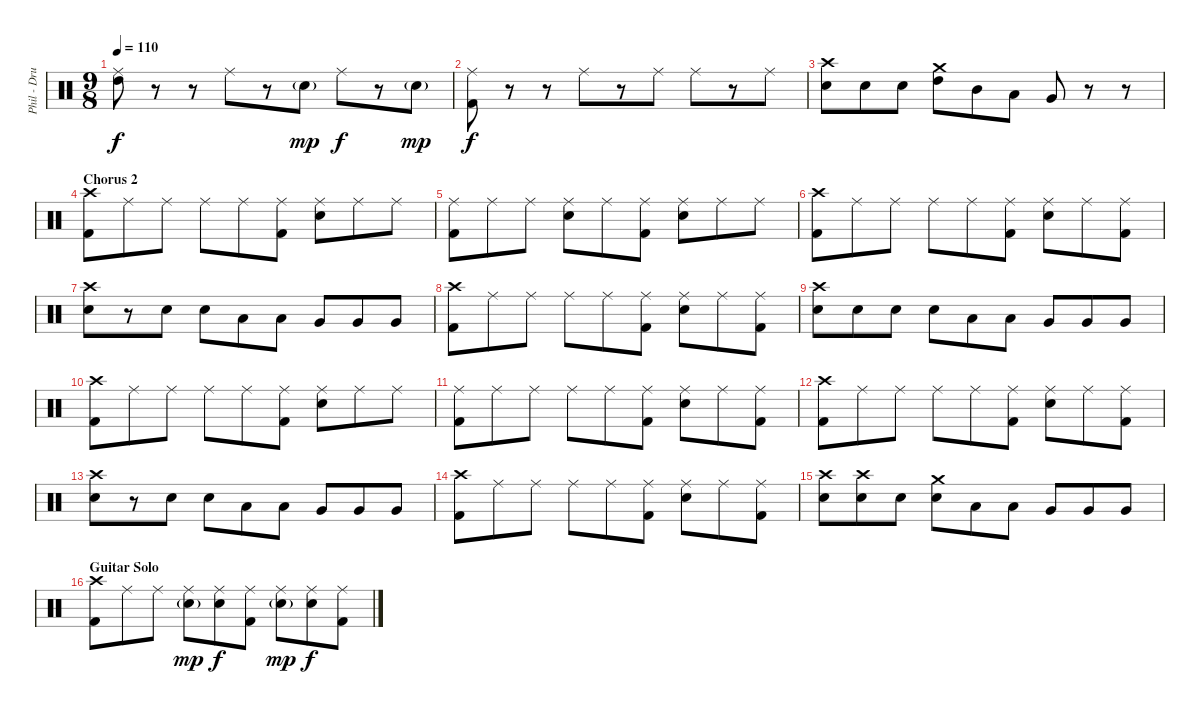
\track ("Phil - Drums" "Phil - Dru") {instrument percussion}
\staff {score}
\articulation defaults
\ts (9 8)
\tempo 110
\clef neutral
\ks c
("Ride (middle)" "High Tom (hit)").8{dy f} r.8 r.8 "Ride (middle)".8 r.8 "Electric Snare (hit)"{g}.8{dy mp} "Ride (middle)".8{dy f} r.8 "Electric Snare (hit)"{g}.8{dy mp} |
("Ride (middle)" "Kick (hit) 2").8{dy f} r.8 r.8 "Ride (middle)".8 r.8 "Ride (middle)".8 "Ride (middle)".8 r.8 "Ride (middle)".8 |
("Crash high (hit)" "Snare (hit) 2").8 "Electric Snare (hit)".8 "Electric Snare (hit)".8 ("Crash medium (hit)" "High Tom (hit)").8 "Mid Tom (hit)".8 "Low Tom (hit)".8 "Very Low Tom (hit)".8 r.8 r.8 |
\section ("" "Chorus 2")
("Crash high (hit)" "Kick (hit) 2").8 "Ride (middle)".8 "Ride (middle)".8 "Ride (middle)".8 "Ride (middle)".8 ("Ride (middle)" "Kick (hit) 2").8 ("Ride (middle)" "Electric Snare (hit)").8 "Ride (middle)".8 "Ride (middle)".8 |
("Ride (middle)" "Kick (hit) 2").8 "Ride (middle)".8 "Ride (middle)".8 ("Ride (middle)" "Snare (hit) 2").8 "Ride (middle)".8 ("Ride (middle)" "Kick (hit) 2").8 ("Ride (middle)" "Electric Snare (hit)").8 "Ride (middle)".8 "Ride (middle)".8 |
("Crash high (hit)" "Kick (hit) 2").8 "Ride (middle)".8 "Ride (middle)".8 "Ride (middle)".8 "Ride (middle)".8 ("Ride (middle)" "Kick (hit) 2").8 ("Ride (middle)" "Electric Snare (hit)").8 "Ride (middle)".8 ("Ride (middle)" "Kick (hit) 2").8 |
("Crash high (hit)" "Electric Snare (hit)").8 r.8 "Snare (hit) 2".8 "Electric Snare (hit)".8 "Low Tom (hit)".8 "Low Tom (hit)".8 "Very Low Tom (hit)".8 "Very Low Tom (hit)".8 "Very Low Tom (hit)".8 |
("Crash high (hit)" "Kick (hit) 2").8 "Ride (middle)".8 "Ride (middle)".8 "Ride (middle)".8 "Ride (middle)".8 ("Ride (middle)" "Kick (hit) 2").8 ("Ride (middle)" "Electric Snare (hit)").8 "Ride (middle)".8 ("Ride (middle)" "Kick (hit) 2").8 |
("Crash high (hit)" "Snare (hit) 2").8 "Electric Snare (hit)".8 "Electric Snare (hit)".8 "Electric Snare (hit)".8 "Low Tom (hit)".8 "Low Tom (hit)".8 "Very Low Tom (hit)".8 "Very Low Tom (hit)".8 "Very Low Tom (hit)".8 |
("Crash high (hit)" "Kick (hit) 2").8 "Ride (middle)".8 "Ride (middle)".8 "Ride (middle)".8 "Ride (middle)".8 ("Ride (middle)" "Kick (hit) 2").8 ("Ride (middle)" "Electric Snare (hit)").8 "Ride (middle)".8 "Ride (middle)".8 |
("Ride (middle)" "Kick (hit) 2").8 "Ride (middle)".8 "Ride (middle)".8 "Ride (middle)".8 "Ride (middle)".8 ("Ride (middle)" "Kick (hit) 2").8 ("Ride (middle)" "Electric Snare (hit)").8 "Ride (middle)".8 ("Ride (middle)" "Kick (hit) 2").8 |
("Crash high (hit)" "Kick (hit) 2").8 "Ride (middle)".8 "Ride (middle)".8 "Ride (middle)".8 "Ride (middle)".8 ("Ride (middle)" "Kick (hit) 2").8 ("Ride (middle)" "Electric Snare (hit)").8 "Ride (middle)".8 ("Ride (middle)" "Kick (hit) 2").8 |
("Crash high (hit)" "Electric Snare (hit)").8 r.8 "Snare (hit) 2".8 "Electric Snare (hit)".8 "Low Tom (hit)".8 "Low Tom (hit)".8 "Very Low Tom (hit)".8 "Very Low Tom (hit)".8 "Very Low Tom (hit)".8 |
("Crash high (hit)" "Kick (hit) 2").8 "Ride (middle)".8 "Ride (middle)".8 "Ride (middle)".8 "Ride (middle)".8 ("Ride (middle)" "Kick (hit) 2").8 ("Ride (middle)" "Electric Snare (hit)").8 "Ride (middle)".8 ("Ride (middle)" "Kick (hit) 2").8 |
("Crash high (hit)" "Snare (hit) 2").8 ("Crash high (hit)" "Electric Snare (hit)").8 "Electric Snare (hit)".8 ("Crash medium (hit)" "Electric Snare (hit)").8 "Low Tom (hit)".8 "Low Tom (hit)".8 "Very Low Tom (hit)".8 "Very Low Tom (hit)".8 "Very Low Tom (hit)".8 |
\section ("" "Guitar Solo")
("Crash high (hit)" "Kick (hit) 2").8 "Ride (middle)".8 "Ride (middle)".8 ("Ride (middle)" "Electric Snare (hit)"{g}).8{dy mp} ("Ride (middle)" "Electric Snare (hit)").8{dy f} ("Ride (middle)" "Kick (hit) 2").8 ("Ride (middle)" "Electric Snare (hit)"{g}).8{dy mp} ("Ride (middle)" "Electric Snare (hit)").8{dy f} ("Ride (middle)" "Kick (hit) 2").8
